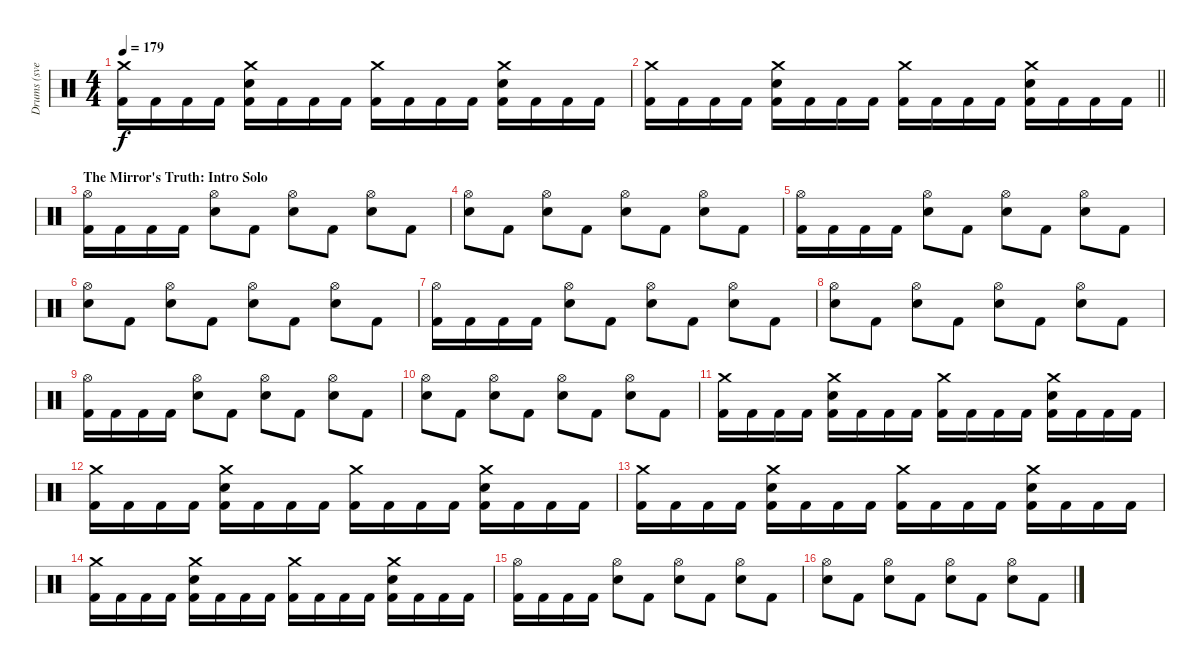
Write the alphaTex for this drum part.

\track ("Drums (svelle)" "Drums (sve") {instrument percussion}
\staff {score}
\articulation defaults
\ts (4 4)
\tempo 179
\clef neutral
\ks c
("Crash medium (hit)" "Kick (hit) 2").16{dy f} "Kick (hit) 2".16 "Kick (hit) 2".16 "Kick (hit) 2".16 ("Crash medium (hit)" "Electric Snare (hit)" "Kick (hit) 2").16 "Kick (hit) 2".16 "Kick (hit) 2".16 "Kick (hit) 2".16 ("Crash medium (hit)" "Kick (hit) 2").16 "Kick (hit) 2".16 "Kick (hit) 2".16 "Kick (hit) 2".16 ("Crash medium (hit)" "Electric Snare (hit)" "Kick (hit) 2").16 "Kick (hit) 2".16 "Kick (hit) 2".16 "Kick (hit) 2".16 |
\barLineRight lightlight
("Crash medium (hit)" "Kick (hit) 2").16 "Kick (hit) 2".16 "Kick (hit) 2".16 "Kick (hit) 2".16 ("Crash medium (hit)" "Electric Snare (hit)" "Kick (hit) 2").16 "Kick (hit) 2".16 "Kick (hit) 2".16 "Kick (hit) 2".16 ("Crash medium (hit)" "Kick (hit) 2").16 "Kick (hit) 2".16 "Kick (hit) 2".16 "Kick (hit) 2".16 ("Crash medium (hit)" "Electric Snare (hit)" "Kick (hit) 2").16 "Kick (hit) 2".16 "Kick (hit) 2".16 "Kick (hit) 2".16 |
\section ("" "The Mirror's Truth: Intro Solo")
("Hi-Hat (open)" "Kick (hit) 2").16 "Kick (hit) 2".16 "Kick (hit) 2".16 "Kick (hit) 2".16 ("Hi-Hat (open)" "Electric Snare (hit)").8 "Kick (hit) 2".8 ("Hi-Hat (open)" "Electric Snare (hit)").8 "Kick (hit) 2".8 ("Hi-Hat (open)" "Electric Snare (hit)").8 "Kick (hit) 2".8 |
("Hi-Hat (open)" "Electric Snare (hit)").8 "Kick (hit) 2".8 ("Hi-Hat (open)" "Electric Snare (hit)").8 "Kick (hit) 2".8 ("Hi-Hat (open)" "Electric Snare (hit)").8 "Kick (hit) 2".8 ("Hi-Hat (open)" "Electric Snare (hit)").8 "Kick (hit) 2".8 |
("Hi-Hat (open)" "Kick (hit) 2").16 "Kick (hit) 2".16 "Kick (hit) 2".16 "Kick (hit) 2".16 ("Hi-Hat (open)" "Electric Snare (hit)").8 "Kick (hit) 2".8 ("Hi-Hat (open)" "Electric Snare (hit)").8 "Kick (hit) 2".8 ("Hi-Hat (open)" "Electric Snare (hit)").8 "Kick (hit) 2".8 |
("Hi-Hat (open)" "Electric Snare (hit)").8 "Kick (hit) 2".8 ("Hi-Hat (open)" "Electric Snare (hit)").8 "Kick (hit) 2".8 ("Hi-Hat (open)" "Electric Snare (hit)").8 "Kick (hit) 2".8 ("Hi-Hat (open)" "Electric Snare (hit)").8 "Kick (hit) 2".8 |
("Hi-Hat (open)" "Kick (hit) 2").16 "Kick (hit) 2".16 "Kick (hit) 2".16 "Kick (hit) 2".16 ("Hi-Hat (open)" "Electric Snare (hit)").8 "Kick (hit) 2".8 ("Hi-Hat (open)" "Electric Snare (hit)").8 "Kick (hit) 2".8 ("Hi-Hat (open)" "Electric Snare (hit)").8 "Kick (hit) 2".8 |
("Hi-Hat (open)" "Electric Snare (hit)").8 "Kick (hit) 2".8 ("Hi-Hat (open)" "Electric Snare (hit)").8 "Kick (hit) 2".8 ("Hi-Hat (open)" "Electric Snare (hit)").8 "Kick (hit) 2".8 ("Hi-Hat (open)" "Electric Snare (hit)").8 "Kick (hit) 2".8 |
("Hi-Hat (open)" "Kick (hit) 2").16 "Kick (hit) 2".16 "Kick (hit) 2".16 "Kick (hit) 2".16 ("Hi-Hat (open)" "Electric Snare (hit)").8 "Kick (hit) 2".8 ("Hi-Hat (open)" "Electric Snare (hit)").8 "Kick (hit) 2".8 ("Hi-Hat (open)" "Electric Snare (hit)").8 "Kick (hit) 2".8 |
("Hi-Hat (open)" "Electric Snare (hit)").8 "Kick (hit) 2".8 ("Hi-Hat (open)" "Electric Snare (hit)").8 "Kick (hit) 2".8 ("Hi-Hat (open)" "Electric Snare (hit)").8 "Kick (hit) 2".8 ("Hi-Hat (open)" "Electric Snare (hit)").8 "Kick (hit) 2".8 |
("Crash medium (hit)" "Kick (hit) 2").16 "Kick (hit) 2".16 "Kick (hit) 2".16 "Kick (hit) 2".16 ("Crash medium (hit)" "Electric Snare (hit)" "Kick (hit) 2").16 "Kick (hit) 2".16 "Kick (hit) 2".16 "Kick (hit) 2".16 ("Crash medium (hit)" "Kick (hit) 2").16 "Kick (hit) 2".16 "Kick (hit) 2".16 "Kick (hit) 2".16 ("Crash medium (hit)" "Electric Snare (hit)" "Kick (hit) 2").16 "Kick (hit) 2".16 "Kick (hit) 2".16 "Kick (hit) 2".16 |
("Crash medium (hit)" "Kick (hit) 2").16 "Kick (hit) 2".16 "Kick (hit) 2".16 "Kick (hit) 2".16 ("Crash medium (hit)" "Electric Snare (hit)" "Kick (hit) 2").16 "Kick (hit) 2".16 "Kick (hit) 2".16 "Kick (hit) 2".16 ("Crash medium (hit)" "Kick (hit) 2").16 "Kick (hit) 2".16 "Kick (hit) 2".16 "Kick (hit) 2".16 ("Crash medium (hit)" "Electric Snare (hit)" "Kick (hit) 2").16 "Kick (hit) 2".16 "Kick (hit) 2".16 "Kick (hit) 2".16 |
("Crash medium (hit)" "Kick (hit) 2").16 "Kick (hit) 2".16 "Kick (hit) 2".16 "Kick (hit) 2".16 ("Crash medium (hit)" "Electric Snare (hit)" "Kick (hit) 2").16 "Kick (hit) 2".16 "Kick (hit) 2".16 "Kick (hit) 2".16 ("Crash medium (hit)" "Kick (hit) 2").16 "Kick (hit) 2".16 "Kick (hit) 2".16 "Kick (hit) 2".16 ("Crash medium (hit)" "Electric Snare (hit)" "Kick (hit) 2").16 "Kick (hit) 2".16 "Kick (hit) 2".16 "Kick (hit) 2".16 |
("Crash medium (hit)" "Kick (hit) 2").16 "Kick (hit) 2".16 "Kick (hit) 2".16 "Kick (hit) 2".16 ("Crash medium (hit)" "Electric Snare (hit)" "Kick (hit) 2").16 "Kick (hit) 2".16 "Kick (hit) 2".16 "Kick (hit) 2".16 ("Crash medium (hit)" "Kick (hit) 2").16 "Kick (hit) 2".16 "Kick (hit) 2".16 "Kick (hit) 2".16 ("Crash medium (hit)" "Electric Snare (hit)" "Kick (hit) 2").16 "Kick (hit) 2".16 "Kick (hit) 2".16 "Kick (hit) 2".16 |
("Hi-Hat (open)" "Kick (hit) 2").16 "Kick (hit) 2".16 "Kick (hit) 2".16 "Kick (hit) 2".16 ("Hi-Hat (open)" "Electric Snare (hit)").8 "Kick (hit) 2".8 ("Hi-Hat (open)" "Electric Snare (hit)").8 "Kick (hit) 2".8 ("Hi-Hat (open)" "Electric Snare (hit)").8 "Kick (hit) 2".8 |
("Hi-Hat (open)" "Electric Snare (hit)").8 "Kick (hit) 2".8 ("Hi-Hat (open)" "Electric Snare (hit)").8 "Kick (hit) 2".8 ("Hi-Hat (open)" "Electric Snare (hit)").8 "Kick (hit) 2".8 ("Hi-Hat (open)" "Electric Snare (hit)").8 "Kick (hit) 2".8
